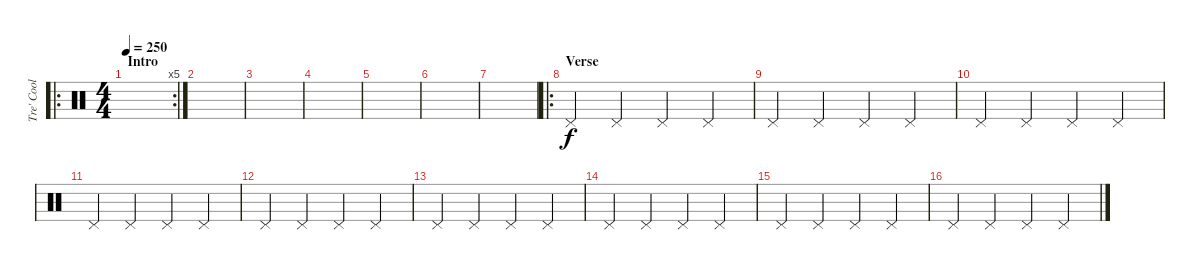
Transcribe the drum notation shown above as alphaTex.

\track ("Tre' Cool" "Tre' Cool") {instrument percussion}
\staff {score}
\articulation defaults
\ro
\rc 5
\ts (4 4)
\section ("" "Intro")
\tempo 250
\clef neutral
\ks c
|
|
|
|
|
|
|
\ro
\section ("" "Verse")
"Pedal Hi-Hat (hit)".4 "Pedal Hi-Hat (hit)".4 "Pedal Hi-Hat (hit)".4 "Pedal Hi-Hat (hit)".4 |
"Pedal Hi-Hat (hit)".4 "Pedal Hi-Hat (hit)".4 "Pedal Hi-Hat (hit)".4 "Pedal Hi-Hat (hit)".4 |
"Pedal Hi-Hat (hit)".4 "Pedal Hi-Hat (hit)".4 "Pedal Hi-Hat (hit)".4 "Pedal Hi-Hat (hit)".4 |
"Pedal Hi-Hat (hit)".4 "Pedal Hi-Hat (hit)".4 "Pedal Hi-Hat (hit)".4 "Pedal Hi-Hat (hit)".4 |
"Pedal Hi-Hat (hit)".4 "Pedal Hi-Hat (hit)".4 "Pedal Hi-Hat (hit)".4 "Pedal Hi-Hat (hit)".4 |
"Pedal Hi-Hat (hit)".4 "Pedal Hi-Hat (hit)".4 "Pedal Hi-Hat (hit)".4 "Pedal Hi-Hat (hit)".4 |
"Pedal Hi-Hat (hit)".4 "Pedal Hi-Hat (hit)".4 "Pedal Hi-Hat (hit)".4 "Pedal Hi-Hat (hit)".4 |
"Pedal Hi-Hat (hit)".4 "Pedal Hi-Hat (hit)".4 "Pedal Hi-Hat (hit)".4 "Pedal Hi-Hat (hit)".4 |
"Pedal Hi-Hat (hit)".4 "Pedal Hi-Hat (hit)".4 "Pedal Hi-Hat (hit)".4 "Pedal Hi-Hat (hit)".4
